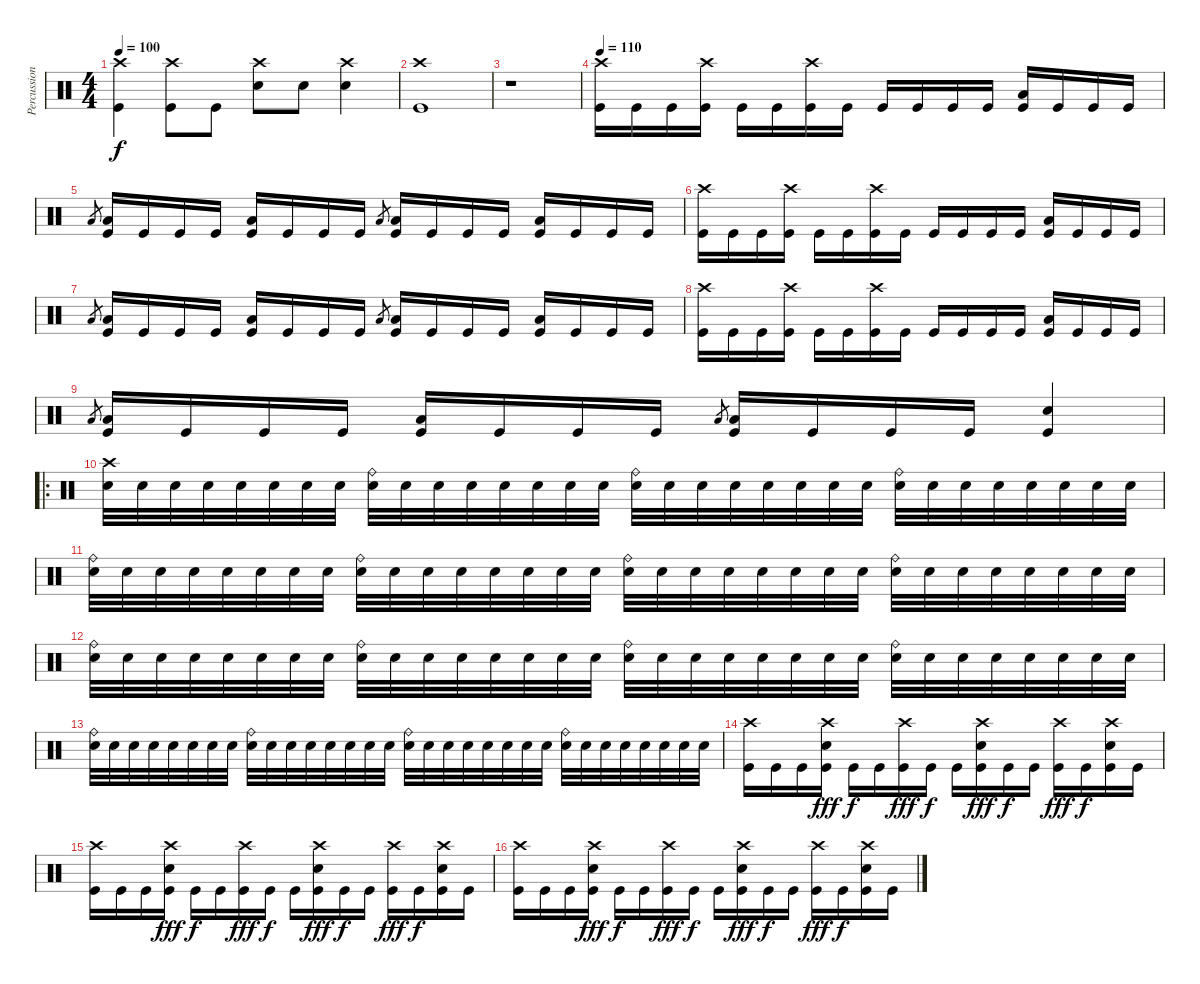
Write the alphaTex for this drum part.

\track ("Percussions" "Percussion") {instrument percussion}
\staff {score}
\articulation defaults
\ts (4 4)
\tempo 100
\clef neutral
\ks c
("Crash high (hit)" "Kick (hit)").4{dy f} ("Crash high (hit)" "Kick (hit)").8 "Kick (hit)".8 ("Crash high (hit)" "Snare (hit) 2").8 "Snare (hit) 2".8 ("Crash high (hit)" "Snare (hit) 2").4 |
("Crash high (hit)" "Kick (hit)").1 |
r.1 |
\tempo 110
("Crash high (hit)" "Kick (hit)").16{volume 13} "Kick (hit)".16 "Kick (hit)".16 ("Crash high (hit)" "Kick (hit)").16 "Kick (hit)".16 "Kick (hit)".16 ("Crash high (hit)" "Kick (hit)").16 "Kick (hit)".16 "Kick (hit)".16 "Kick (hit)".16 "Kick (hit)".16 "Kick (hit)".16 ("Low Tom (hit)" "Kick (hit)").16 "Kick (hit)".16 "Kick (hit)".16 "Kick (hit)".16 |
"Low Floor Tom (hit)".8{gr} ("Low Floor Tom (hit)" "Kick (hit)").16 "Kick (hit)".16 "Kick (hit)".16 "Kick (hit)".16 ("Low Tom (hit)" "Kick (hit)").16 "Kick (hit)".16 "Kick (hit)".16 "Kick (hit)".16 "Low Floor Tom (hit)".8{gr} ("Low Floor Tom (hit)" "Kick (hit)").16 "Kick (hit)".16 "Kick (hit)".16 "Kick (hit)".16 ("Low Tom (hit)" "Kick (hit)").16 "Kick (hit)".16 "Kick (hit)".16 "Kick (hit)".16 |
("Crash high (hit)" "Kick (hit)").16 "Kick (hit)".16 "Kick (hit)".16 ("Crash high (hit)" "Kick (hit)").16 "Kick (hit)".16 "Kick (hit)".16 ("Crash high (hit)" "Kick (hit)").16 "Kick (hit)".16 "Kick (hit)".16 "Kick (hit)".16 "Kick (hit)".16 "Kick (hit)".16 ("Low Tom (hit)" "Kick (hit)").16 "Kick (hit)".16 "Kick (hit)".16 "Kick (hit)".16 |
"Low Floor Tom (hit)".8{gr} ("Low Floor Tom (hit)" "Kick (hit)").16 "Kick (hit)".16 "Kick (hit)".16 "Kick (hit)".16 ("Low Tom (hit)" "Kick (hit)").16 "Kick (hit)".16 "Kick (hit)".16 "Kick (hit)".16 "Low Floor Tom (hit)".8{gr} ("Low Floor Tom (hit)" "Kick (hit)").16 "Kick (hit)".16 "Kick (hit)".16 "Kick (hit)".16 ("Low Tom (hit)" "Kick (hit)").16 "Kick (hit)".16 "Kick (hit)".16 "Kick (hit)".16 |
("Crash high (hit)" "Kick (hit)").16 "Kick (hit)".16 "Kick (hit)".16 ("Crash high (hit)" "Kick (hit)").16 "Kick (hit)".16 "Kick (hit)".16 ("Crash high (hit)" "Kick (hit)").16 "Kick (hit)".16 "Kick (hit)".16 "Kick (hit)".16 "Kick (hit)".16 "Kick (hit)".16 ("Low Tom (hit)" "Kick (hit)").16 "Kick (hit)".16 "Kick (hit)".16 "Kick (hit)".16 |
"Low Floor Tom (hit)".8{gr} ("Low Floor Tom (hit)" "Kick (hit)").16 "Kick (hit)".16 "Kick (hit)".16 "Kick (hit)".16 ("Low Tom (hit)" "Kick (hit)").16 "Kick (hit)".16 "Kick (hit)".16 "Kick (hit)".16 "Low Floor Tom (hit)".8{gr} ("Low Floor Tom (hit)" "Kick (hit)").16 "Kick (hit)".16 "Kick (hit)".16 "Kick (hit)".16 ("Snare (hit) 2" "Kick (hit)").4 |
\ro
("Crash high (hit)" "Electric Snare (hit)").32 "Electric Snare (hit)".32 "Electric Snare (hit)".32 "Electric Snare (hit)".32 "Electric Snare (hit)".32 "Electric Snare (hit)".32 "Electric Snare (hit)".32 "Electric Snare (hit)".32 ("Ride (bell)" "Electric Snare (hit)").32 "Electric Snare (hit)".32 "Electric Snare (hit)".32 "Electric Snare (hit)".32 "Electric Snare (hit)".32 "Electric Snare (hit)".32 "Electric Snare (hit)".32 "Electric Snare (hit)".32 ("Ride (bell)" "Electric Snare (hit)").32 "Electric Snare (hit)".32 "Electric Snare (hit)".32 "Electric Snare (hit)".32 "Electric Snare (hit)".32 "Electric Snare (hit)".32 "Electric Snare (hit)".32 "Electric Snare (hit)".32 ("Ride (bell)" "Electric Snare (hit)").32 "Electric Snare (hit)".32 "Electric Snare (hit)".32 "Electric Snare (hit)".32 "Electric Snare (hit)".32 "Electric Snare (hit)".32 "Electric Snare (hit)".32 "Electric Snare (hit)".32 |
("Ride (bell)" "Electric Snare (hit)").32 "Electric Snare (hit)".32 "Electric Snare (hit)".32 "Electric Snare (hit)".32 "Electric Snare (hit)".32 "Electric Snare (hit)".32 "Electric Snare (hit)".32 "Electric Snare (hit)".32 ("Ride (bell)" "Electric Snare (hit)").32 "Electric Snare (hit)".32 "Electric Snare (hit)".32 "Electric Snare (hit)".32 "Electric Snare (hit)".32 "Electric Snare (hit)".32 "Electric Snare (hit)".32 "Electric Snare (hit)".32 ("Ride (bell)" "Electric Snare (hit)").32 "Electric Snare (hit)".32 "Electric Snare (hit)".32 "Electric Snare (hit)".32 "Electric Snare (hit)".32 "Electric Snare (hit)".32 "Electric Snare (hit)".32 "Electric Snare (hit)".32 ("Ride (bell)" "Electric Snare (hit)").32 "Electric Snare (hit)".32 "Electric Snare (hit)".32 "Electric Snare (hit)".32 "Electric Snare (hit)".32 "Electric Snare (hit)".32 "Electric Snare (hit)".32 "Electric Snare (hit)".32 |
("Ride (bell)" "Electric Snare (hit)").32 "Electric Snare (hit)".32 "Electric Snare (hit)".32 "Electric Snare (hit)".32 "Electric Snare (hit)".32 "Electric Snare (hit)".32 "Electric Snare (hit)".32 "Electric Snare (hit)".32 ("Ride (bell)" "Electric Snare (hit)").32 "Electric Snare (hit)".32 "Electric Snare (hit)".32 "Electric Snare (hit)".32 "Electric Snare (hit)".32 "Electric Snare (hit)".32 "Electric Snare (hit)".32 "Electric Snare (hit)".32 ("Ride (bell)" "Electric Snare (hit)").32 "Electric Snare (hit)".32 "Electric Snare (hit)".32 "Electric Snare (hit)".32 "Electric Snare (hit)".32 "Electric Snare (hit)".32 "Electric Snare (hit)".32 "Electric Snare (hit)".32 ("Ride (bell)" "Electric Snare (hit)").32 "Electric Snare (hit)".32 "Electric Snare (hit)".32 "Electric Snare (hit)".32 "Electric Snare (hit)".32 "Electric Snare (hit)".32 "Electric Snare (hit)".32 "Electric Snare (hit)".32 |
("Ride (bell)" "Electric Snare (hit)").32 "Electric Snare (hit)".32 "Electric Snare (hit)".32 "Electric Snare (hit)".32 "Electric Snare (hit)".32 "Electric Snare (hit)".32 "Electric Snare (hit)".32 "Electric Snare (hit)".32 ("Ride (bell)" "Electric Snare (hit)").32 "Electric Snare (hit)".32 "Electric Snare (hit)".32 "Electric Snare (hit)".32 "Electric Snare (hit)".32 "Electric Snare (hit)".32 "Electric Snare (hit)".32 "Electric Snare (hit)".32 ("Ride (bell)" "Electric Snare (hit)").32 "Electric Snare (hit)".32 "Electric Snare (hit)".32 "Electric Snare (hit)".32 "Electric Snare (hit)".32 "Electric Snare (hit)".32 "Electric Snare (hit)".32 "Electric Snare (hit)".32 ("Ride (bell)" "Electric Snare (hit)").32 "Electric Snare (hit)".32 "Electric Snare (hit)".32 "Electric Snare (hit)".32 "Electric Snare (hit)".32 "Electric Snare (hit)".32 "Electric Snare (hit)".32 "Electric Snare (hit)".32 |
("Crash high (hit)" "Kick (hit)").16 "Kick (hit)".16 "Kick (hit)".16 ("Crash high (hit)" "Snare (hit) 2" "Kick (hit)").16{dy fff} "Kick (hit)".16{dy f} "Kick (hit)".16 ("Crash high (hit)" "Kick (hit)").16{dy fff} "Kick (hit)".16{dy f} "Kick (hit)".16 ("Crash high (hit)" "Snare (hit) 2" "Kick (hit)").16{dy fff} "Kick (hit)".16{dy f} "Kick (hit)".16 ("Crash high (hit)" "Kick (hit)").16{dy fff} "Kick (hit)".16{dy f} ("Crash high (hit)" "Snare (hit) 2" "Kick (hit)").16 "Kick (hit)".16 |
("Crash high (hit)" "Kick (hit)").16 "Kick (hit)".16 "Kick (hit)".16 ("Crash high (hit)" "Snare (hit) 2" "Kick (hit)").16{dy fff} "Kick (hit)".16{dy f} "Kick (hit)".16 ("Crash high (hit)" "Kick (hit)").16{dy fff} "Kick (hit)".16{dy f} "Kick (hit)".16 ("Crash high (hit)" "Snare (hit) 2" "Kick (hit)").16{dy fff} "Kick (hit)".16{dy f} "Kick (hit)".16 ("Crash high (hit)" "Kick (hit)").16{dy fff} "Kick (hit)".16{dy f} ("Crash high (hit)" "Snare (hit) 2" "Kick (hit)").16 "Kick (hit)".16 |
("Crash high (hit)" "Kick (hit)").16 "Kick (hit)".16 "Kick (hit)".16 ("Crash high (hit)" "Snare (hit) 2" "Kick (hit)").16{dy fff} "Kick (hit)".16{dy f} "Kick (hit)".16 ("Crash high (hit)" "Kick (hit)").16{dy fff} "Kick (hit)".16{dy f} "Kick (hit)".16 ("Crash high (hit)" "Snare (hit) 2" "Kick (hit)").16{dy fff} "Kick (hit)".16{dy f} "Kick (hit)".16 ("Crash high (hit)" "Kick (hit)").16{dy fff} "Kick (hit)".16{dy f} ("Crash high (hit)" "Snare (hit) 2" "Kick (hit)").16 "Kick (hit)".16
